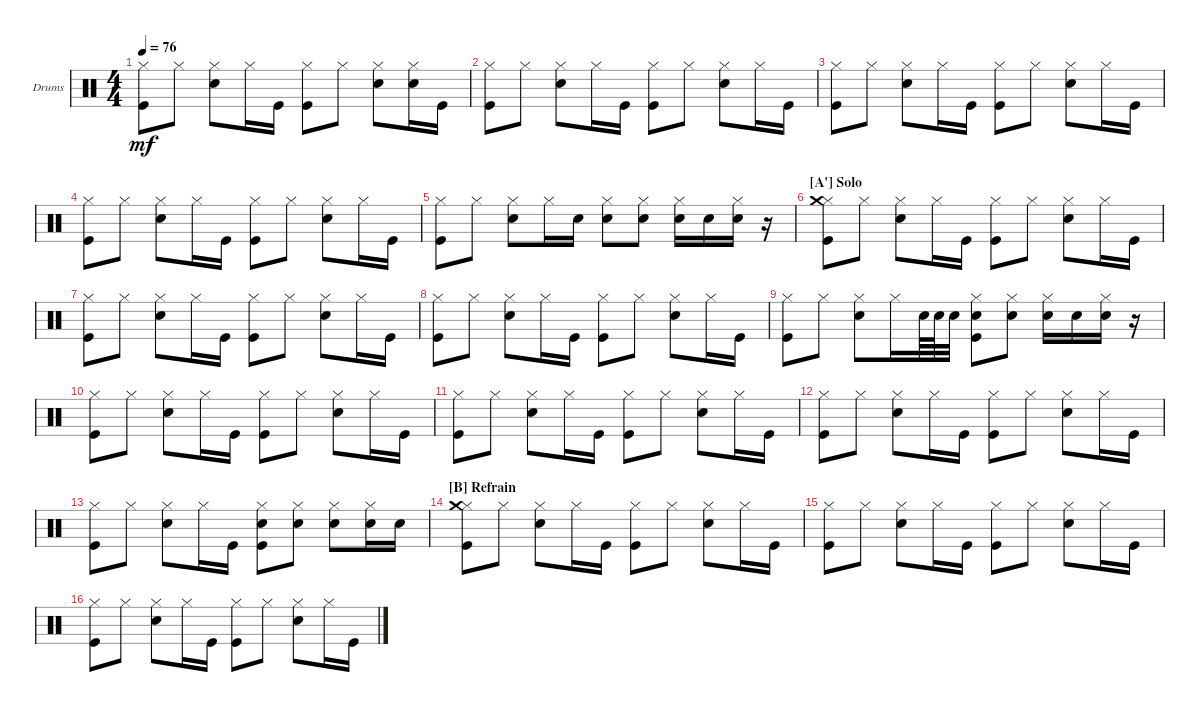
\defaultSystemsLayout 4
\bracketExtendMode groupsimilarinstruments
\firstSystemTrackNameOrientation horizontal
\otherSystemsTrackNameOrientation horizontal
\track ("Drums" "Drums") {instrument percussion}
\staff {score}
\articulation defaults
\ts (4 4)
\tempo 76
\clef neutral
\ks c
("Kick (hit)" "Hi-Hat (closed)").8{dy mf} "Hi-Hat (closed)".8 ("Hi-Hat (closed)" "Snare (hit) 2").8 "Hi-Hat (closed)".16 "Kick (hit)".16 ("Hi-Hat (closed)" "Kick (hit)").8 "Hi-Hat (closed)".8 ("Hi-Hat (closed)" "Snare (hit) 2").8 ("Hi-Hat (closed)" "Snare (hit) 2").16 "Kick (hit)".16 |
("Kick (hit)" "Hi-Hat (closed)").8 "Hi-Hat (closed)".8 ("Hi-Hat (closed)" "Snare (hit) 2").8 "Hi-Hat (closed)".16 "Kick (hit)".16 ("Hi-Hat (closed)" "Kick (hit)").8 "Hi-Hat (closed)".8 ("Hi-Hat (closed)" "Snare (hit) 2").8 "Hi-Hat (closed)".16 "Kick (hit)".16 |
("Kick (hit)" "Hi-Hat (closed)").8 "Hi-Hat (closed)".8 ("Hi-Hat (closed)" "Snare (hit) 2").8 "Hi-Hat (closed)".16 "Kick (hit)".16 ("Hi-Hat (closed)" "Kick (hit)").8 "Hi-Hat (closed)".8 ("Hi-Hat (closed)" "Snare (hit) 2").8 "Hi-Hat (closed)".16 "Kick (hit)".16 |
("Kick (hit)" "Hi-Hat (closed)").8 "Hi-Hat (closed)".8 ("Hi-Hat (closed)" "Snare (hit) 2").8 "Hi-Hat (closed)".16 "Kick (hit)".16 ("Hi-Hat (closed)" "Kick (hit)").8 "Hi-Hat (closed)".8 ("Hi-Hat (closed)" "Snare (hit) 2").8 "Hi-Hat (closed)".16 "Kick (hit)".16 |
("Kick (hit)" "Hi-Hat (closed)").8 "Hi-Hat (closed)".8 ("Hi-Hat (closed)" "Snare (hit) 2").8 "Hi-Hat (closed)".16 "Snare (hit) 2".16 ("Hi-Hat (closed)" "Snare (hit) 2").8 ("Hi-Hat (closed)" "Snare (hit) 2").8 ("Hi-Hat (closed)" "Snare (hit) 2").16 "Snare (hit) 2".16 ("Hi-Hat (closed)" "Snare (hit) 2").16 r.16 |
\section ("A'" "Solo")
("Kick (hit)" "Hi-Hat (closed)" "Crash medium (hit)").8 "Hi-Hat (closed)".8 ("Hi-Hat (closed)" "Snare (hit) 2").8 "Hi-Hat (closed)".16 "Kick (hit)".16 ("Hi-Hat (closed)" "Kick (hit)").8 "Hi-Hat (closed)".8 ("Hi-Hat (closed)" "Snare (hit) 2").8 "Hi-Hat (closed)".16 "Kick (hit)".16 |
("Kick (hit)" "Hi-Hat (closed)").8 "Hi-Hat (closed)".8 ("Hi-Hat (closed)" "Snare (hit) 2").8 "Hi-Hat (closed)".16 "Kick (hit)".16 ("Hi-Hat (closed)" "Kick (hit)").8 "Hi-Hat (closed)".8 ("Hi-Hat (closed)" "Snare (hit) 2").8 "Hi-Hat (closed)".16 "Kick (hit)".16 |
("Kick (hit)" "Hi-Hat (closed)").8 "Hi-Hat (closed)".8 ("Hi-Hat (closed)" "Snare (hit) 2").8 "Hi-Hat (closed)".16 "Kick (hit)".16 ("Hi-Hat (closed)" "Kick (hit)").8 "Hi-Hat (closed)".8 ("Hi-Hat (closed)" "Snare (hit) 2").8 "Hi-Hat (closed)".16 "Kick (hit)".16 |
("Kick (hit)" "Hi-Hat (closed)").8 "Hi-Hat (closed)".8 ("Hi-Hat (closed)" "Snare (hit) 2").8 "Hi-Hat (closed)".16 "Snare (hit) 2".64 "Snare (hit) 2".64 "Snare (hit) 2".32 ("Hi-Hat (closed)" "Snare (hit) 2" "Kick (hit)").8 ("Hi-Hat (closed)" "Snare (hit) 2").8 ("Hi-Hat (closed)" "Snare (hit) 2").16 "Snare (hit) 2".16 ("Hi-Hat (closed)" "Snare (hit) 2").16 r.16 |
("Kick (hit)" "Hi-Hat (closed)").8 "Hi-Hat (closed)".8 ("Hi-Hat (closed)" "Snare (hit) 2").8 "Hi-Hat (closed)".16 "Kick (hit)".16 ("Hi-Hat (closed)" "Kick (hit)").8 "Hi-Hat (closed)".8 ("Hi-Hat (closed)" "Snare (hit) 2").8 "Hi-Hat (closed)".16 "Kick (hit)".16 |
("Kick (hit)" "Hi-Hat (closed)").8 "Hi-Hat (closed)".8 ("Hi-Hat (closed)" "Snare (hit) 2").8 "Hi-Hat (closed)".16 "Kick (hit)".16 ("Hi-Hat (closed)" "Kick (hit)").8 "Hi-Hat (closed)".8 ("Hi-Hat (closed)" "Snare (hit) 2").8 "Hi-Hat (closed)".16 "Kick (hit)".16 |
("Kick (hit)" "Hi-Hat (closed)").8 "Hi-Hat (closed)".8 ("Hi-Hat (closed)" "Snare (hit) 2").8 "Hi-Hat (closed)".16 "Kick (hit)".16 ("Hi-Hat (closed)" "Kick (hit)").8 "Hi-Hat (closed)".8 ("Hi-Hat (closed)" "Snare (hit) 2").8 "Hi-Hat (closed)".16 "Kick (hit)".16 |
("Kick (hit)" "Hi-Hat (closed)").8 "Hi-Hat (closed)".8 ("Hi-Hat (closed)" "Snare (hit) 2").8 "Hi-Hat (closed)".16 "Kick (hit)".16 ("Hi-Hat (closed)" "Kick (hit)" "Snare (hit) 2").8 ("Hi-Hat (closed)" "Snare (hit) 2").8 ("Hi-Hat (closed)" "Snare (hit) 2").8 ("Hi-Hat (closed)" "Snare (hit) 2").16 "Snare (hit) 2".16 |
\section ("B" "Refrain")
("Kick (hit)" "Hi-Hat (closed)" "Crash medium (hit)").8 "Hi-Hat (closed)".8 ("Hi-Hat (closed)" "Snare (hit) 2").8 "Hi-Hat (closed)".16 "Kick (hit)".16 ("Hi-Hat (closed)" "Kick (hit)").8 "Hi-Hat (closed)".8 ("Hi-Hat (closed)" "Snare (hit) 2").8 "Hi-Hat (closed)".16 "Kick (hit)".16 |
("Kick (hit)" "Hi-Hat (closed)").8 "Hi-Hat (closed)".8 ("Hi-Hat (closed)" "Snare (hit) 2").8 "Hi-Hat (closed)".16 "Kick (hit)".16 ("Hi-Hat (closed)" "Kick (hit)").8 "Hi-Hat (closed)".8 ("Hi-Hat (closed)" "Snare (hit) 2").8 "Hi-Hat (closed)".16 "Kick (hit)".16 |
("Kick (hit)" "Hi-Hat (closed)").8 "Hi-Hat (closed)".8 ("Hi-Hat (closed)" "Snare (hit) 2").8 "Hi-Hat (closed)".16 "Kick (hit)".16 ("Hi-Hat (closed)" "Kick (hit)").8 "Hi-Hat (closed)".8 ("Hi-Hat (closed)" "Snare (hit) 2").8 "Hi-Hat (closed)".16 "Kick (hit)".16
